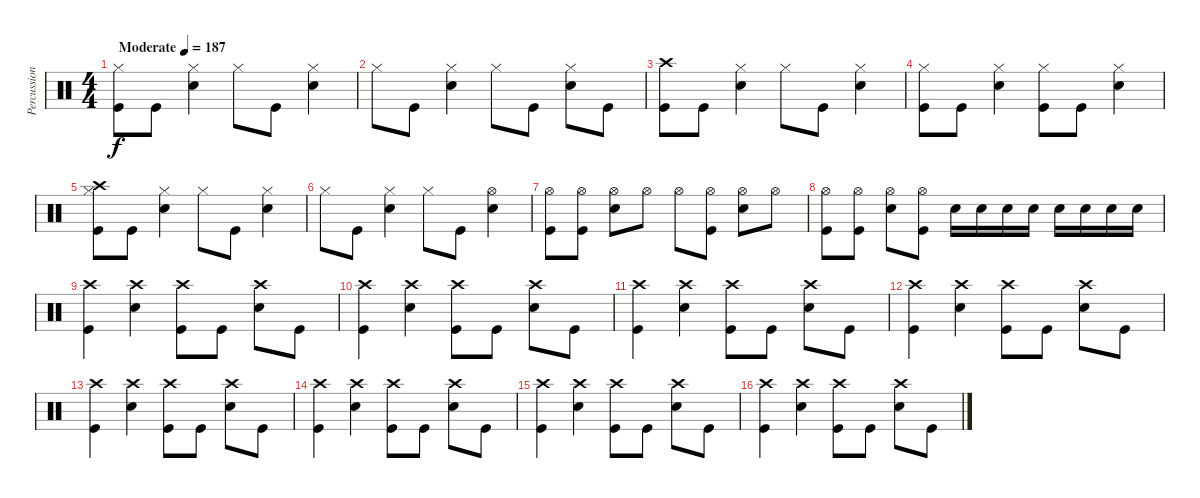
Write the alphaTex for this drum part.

\track ("Percussions" "Percussion") {instrument percussion}
\staff {score}
\articulation defaults
\ts (4 4)
\tempo (187 "Moderate")
\clef neutral
\ks c
("Kick (hit)" "Hi-Hat (closed)").8{dy f} "Kick (hit)".8 ("Electric Snare (hit)" "Hi-Hat (closed)").4 "Hi-Hat (closed)".8 "Kick (hit)".8 ("Electric Snare (hit)" "Hi-Hat (closed)").4 |
"Hi-Hat (closed)".8 "Kick (hit)".8 ("Electric Snare (hit)" "Hi-Hat (closed)").4 "Hi-Hat (closed)".8 "Kick (hit)".8 ("Hi-Hat (closed)" "Electric Snare (hit)").8 "Kick (hit)".8 |
("Kick (hit)" "Crash high (hit)").8 "Kick (hit)".8 ("Electric Snare (hit)" "Hi-Hat (closed)").4 "Hi-Hat (closed)".8 "Kick (hit)".8 ("Electric Snare (hit)" "Hi-Hat (closed)").4 |
("Hi-Hat (closed)" "Kick (hit)").8 "Kick (hit)".8 ("Electric Snare (hit)" "Hi-Hat (closed)").4 ("Hi-Hat (closed)" "Kick (hit)").8 "Kick (hit)".8 ("Electric Snare (hit)" "Hi-Hat (closed)").4 |
("Kick (hit)" "Hi-Hat (closed)" "Crash high (hit)").8 "Kick (hit)".8 ("Electric Snare (hit)" "Hi-Hat (closed)").4 "Hi-Hat (closed)".8 "Kick (hit)".8 ("Electric Snare (hit)" "Hi-Hat (closed)").4 |
"Hi-Hat (closed)".8 "Kick (hit)".8 ("Electric Snare (hit)" "Hi-Hat (closed)").4 "Hi-Hat (closed)".8 "Kick (hit)".8 ("Hi-Hat (open)" "Electric Snare (hit)").4 |
("Kick (hit)" "Hi-Hat (open)").8 ("Kick (hit)" "Hi-Hat (open)").8 ("Electric Snare (hit)" "Hi-Hat (open)").8 "Hi-Hat (open)".8 "Hi-Hat (open)".8 ("Kick (hit)" "Hi-Hat (open)").8 ("Electric Snare (hit)" "Hi-Hat (open)").8 "Hi-Hat (open)".8 |
("Kick (hit)" "Hi-Hat (open)").8 ("Kick (hit)" "Hi-Hat (open)").8 ("Electric Snare (hit)" "Hi-Hat (open)").8 ("Hi-Hat (open)" "Kick (hit)").8 "Electric Snare (hit)".16 "Electric Snare (hit)".16 "Electric Snare (hit)".16 "Electric Snare (hit)".16 "Electric Snare (hit)".16 "Electric Snare (hit)".16 "Electric Snare (hit)".16 "Electric Snare (hit)".16 |
("Kick (hit)" "Crash high (hit)").4 ("Electric Snare (hit)" "Crash high (hit)").4 ("Kick (hit)" "Crash high (hit)").8 "Kick (hit)".8 ("Electric Snare (hit)" "Crash high (hit)").8 "Kick (hit)".8 |
("Kick (hit)" "Crash high (hit)").4 ("Electric Snare (hit)" "Crash high (hit)").4 ("Kick (hit)" "Crash high (hit)").8 "Kick (hit)".8 ("Snare (hit) 2" "Crash high (hit)").8 "Kick (hit)".8 |
("Kick (hit)" "Crash high (hit)").4 ("Electric Snare (hit)" "Crash high (hit)").4 ("Kick (hit)" "Crash high (hit)").8 "Kick (hit)".8 ("Electric Snare (hit)" "Crash high (hit)").8 "Kick (hit)".8 |
("Kick (hit)" "Crash high (hit)").4 ("Electric Snare (hit)" "Crash high (hit)").4 ("Kick (hit)" "Crash high (hit)").8 "Kick (hit)".8 ("Electric Snare (hit)" "Crash high (hit)").8 "Kick (hit)".8 |
("Kick (hit)" "Crash high (hit)").4 ("Electric Snare (hit)" "Crash high (hit)").4 ("Kick (hit)" "Crash high (hit)").8 "Kick (hit)".8 ("Electric Snare (hit)" "Crash high (hit)").8 "Kick (hit)".8 |
("Kick (hit)" "Crash high (hit)").4 ("Electric Snare (hit)" "Crash high (hit)").4 ("Kick (hit)" "Crash high (hit)").8 "Kick (hit)".8 ("Electric Snare (hit)" "Crash high (hit)").8 "Kick (hit)".8 |
("Kick (hit)" "Crash high (hit)").4 ("Electric Snare (hit)" "Crash high (hit)").4 ("Kick (hit)" "Crash high (hit)").8 "Kick (hit)".8 ("Electric Snare (hit)" "Crash high (hit)").8 "Kick (hit)".8 |
("Kick (hit)" "Crash high (hit)").4 ("Electric Snare (hit)" "Crash high (hit)").4 ("Kick (hit)" "Crash high (hit)").8 "Kick (hit)".8 ("Electric Snare (hit)" "Crash high (hit)").8 "Kick (hit)".8
